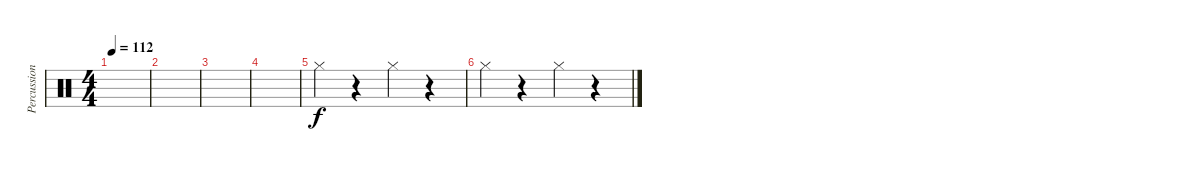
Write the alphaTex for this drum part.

\track ("Percussions" "Percussion") {instrument percussion}
\staff {score}
\articulation defaults
\ts (4 4)
\tempo 112
\clef neutral
\ks c
|
|
|
|
"Hi-Hat (closed)".4 r.4 "Hi-Hat (closed)".4 r.4 |
"Hi-Hat (closed)".4 r.4 "Hi-Hat (closed)".4 r.4
